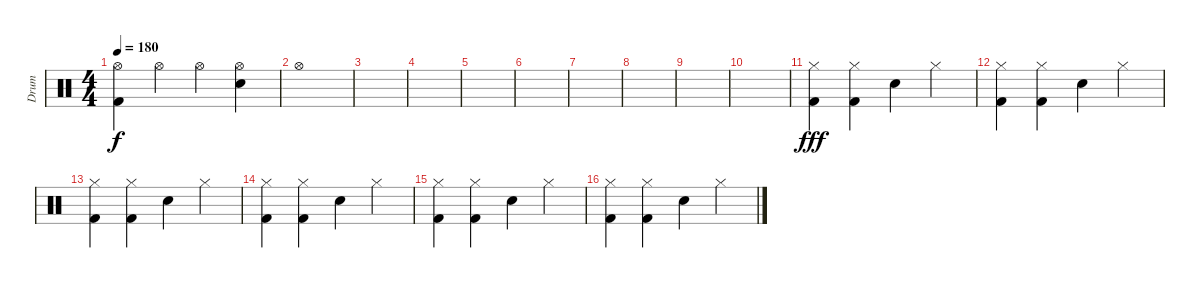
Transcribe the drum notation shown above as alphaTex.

\track ("Drum" "Drum") {instrument percussion}
\staff {score}
\articulation defaults
\ts (4 4)
\tempo 180
\clef neutral
\ks c
("Hi-Hat (open)" "Kick (hit) 2").4{dy f} "Hi-Hat (open)".4 "Hi-Hat (open)".4 ("Hi-Hat (open)" "Snare (hit) 2").4 |
"Hi-Hat (open)".1 |
|
|
|
|
|
|
|
|
("Hi-Hat (closed)" "Kick (hit) 2").4{dy fff} ("Hi-Hat (closed)" "Kick (hit) 2").4 "Snare (hit) 2".4 "Hi-Hat (closed)".4 |
("Hi-Hat (closed)" "Kick (hit) 2").4 ("Hi-Hat (closed)" "Kick (hit) 2").4 "Snare (hit) 2".4 "Hi-Hat (closed)".4 |
("Hi-Hat (closed)" "Kick (hit) 2").4 ("Hi-Hat (closed)" "Kick (hit) 2").4 "Snare (hit) 2".4 "Hi-Hat (closed)".4 |
("Hi-Hat (closed)" "Kick (hit) 2").4 ("Hi-Hat (closed)" "Kick (hit) 2").4 "Snare (hit) 2".4 "Hi-Hat (closed)".4 |
("Hi-Hat (closed)" "Kick (hit) 2").4 ("Hi-Hat (closed)" "Kick (hit) 2").4 "Snare (hit) 2".4 "Hi-Hat (closed)".4 |
("Hi-Hat (closed)" "Kick (hit) 2").4 ("Hi-Hat (closed)" "Kick (hit) 2").4 "Snare (hit) 2".4 "Hi-Hat (closed)".4
